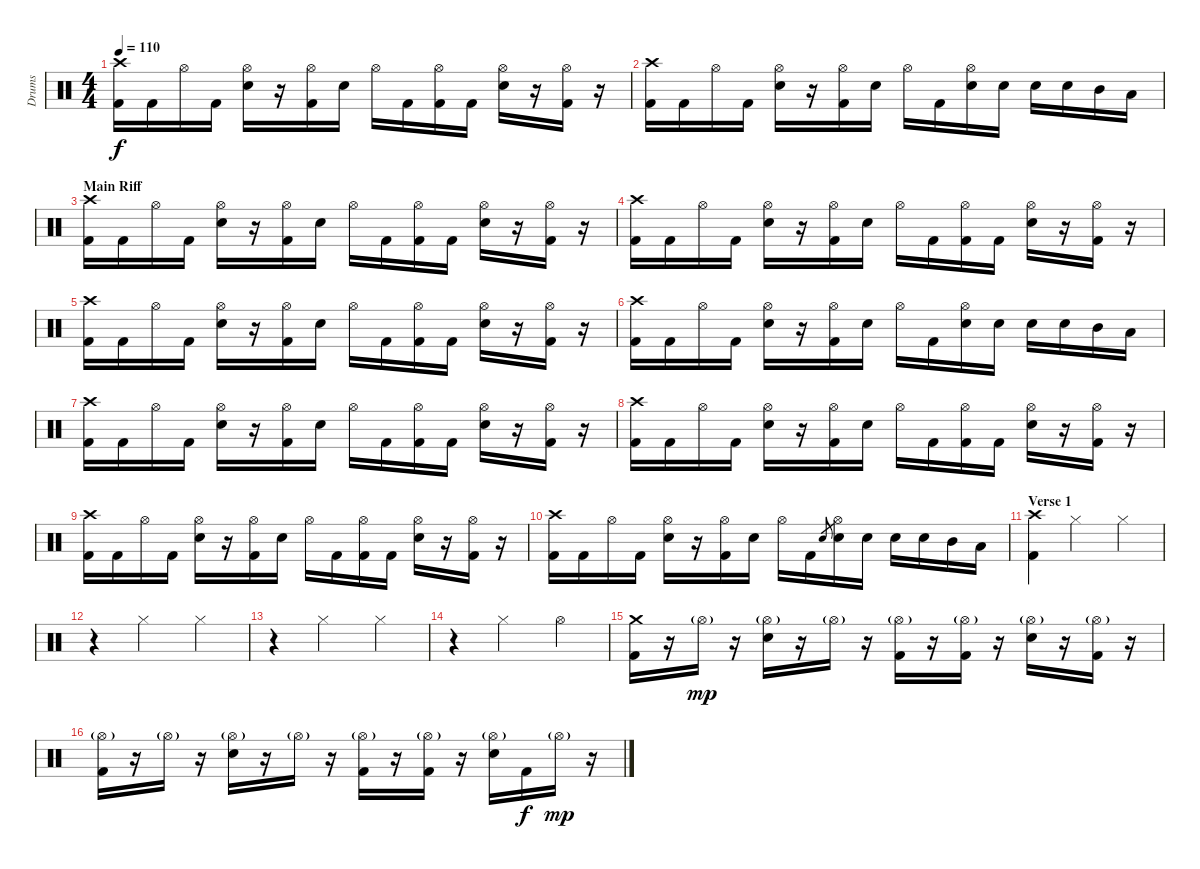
\track ("Drums" "Drums") {instrument percussion}
\staff {score}
\articulation defaults
\ts (4 4)
\tempo 110
\clef neutral
\ks c
("Crash high (hit)" "Kick (hit) 2").16{dy f} "Kick (hit) 2".16 "Hi-Hat (open)".16 "Kick (hit) 2".16 ("Hi-Hat (open)" "Electric Snare (hit)").16 r.16 ("Hi-Hat (open)" "Kick (hit) 2").16 "Electric Snare (hit)".16 "Hi-Hat (open)".16 "Kick (hit) 2".16 ("Hi-Hat (open)" "Kick (hit) 2").16 "Kick (hit) 2".16 ("Hi-Hat (open)" "Electric Snare (hit)").16 r.16 ("Hi-Hat (open)" "Kick (hit) 2").16 r.16 |
("Crash high (hit)" "Kick (hit) 2").16 "Kick (hit) 2".16 "Hi-Hat (open)".16 "Kick (hit) 2".16 ("Hi-Hat (open)" "Electric Snare (hit)").16 r.16 ("Hi-Hat (open)" "Kick (hit) 2").16 "Electric Snare (hit)".16 "Hi-Hat (open)".16 "Kick (hit) 2".16 ("Hi-Hat (open)" "Electric Snare (hit)").16 "Electric Snare (hit)".16 "Electric Snare (hit)".16 "Electric Snare (hit)".16 "Mid Tom (hit)".16 "Low Tom (hit)".16 |
\section ("" "Main Riff")
("Crash high (hit)" "Kick (hit) 2").16 "Kick (hit) 2".16 "Hi-Hat (open)".16 "Kick (hit) 2".16 ("Hi-Hat (open)" "Electric Snare (hit)").16 r.16 ("Hi-Hat (open)" "Kick (hit) 2").16 "Electric Snare (hit)".16 "Hi-Hat (open)".16 "Kick (hit) 2".16 ("Hi-Hat (open)" "Kick (hit) 2").16 "Kick (hit) 2".16 ("Hi-Hat (open)" "Electric Snare (hit)").16 r.16 ("Hi-Hat (open)" "Kick (hit) 2").16 r.16 |
("Crash high (hit)" "Kick (hit) 2").16 "Kick (hit) 2".16 "Hi-Hat (open)".16 "Kick (hit) 2".16 ("Hi-Hat (open)" "Electric Snare (hit)").16 r.16 ("Hi-Hat (open)" "Kick (hit) 2").16 "Electric Snare (hit)".16 "Hi-Hat (open)".16 "Kick (hit) 2".16 ("Hi-Hat (open)" "Kick (hit) 2").16 "Kick (hit) 2".16 ("Hi-Hat (open)" "Electric Snare (hit)").16 r.16 ("Hi-Hat (open)" "Kick (hit) 2").16 r.16 |
("Crash high (hit)" "Kick (hit) 2").16 "Kick (hit) 2".16 "Hi-Hat (open)".16 "Kick (hit) 2".16 ("Hi-Hat (open)" "Electric Snare (hit)").16 r.16 ("Hi-Hat (open)" "Kick (hit) 2").16 "Electric Snare (hit)".16 "Hi-Hat (open)".16 "Kick (hit) 2".16 ("Hi-Hat (open)" "Kick (hit) 2").16 "Kick (hit) 2".16 ("Hi-Hat (open)" "Electric Snare (hit)").16 r.16 ("Hi-Hat (open)" "Kick (hit) 2").16 r.16 |
("Crash high (hit)" "Kick (hit) 2").16 "Kick (hit) 2".16 "Hi-Hat (open)".16 "Kick (hit) 2".16 ("Hi-Hat (open)" "Electric Snare (hit)").16 r.16 ("Hi-Hat (open)" "Kick (hit) 2").16 "Electric Snare (hit)".16 "Hi-Hat (open)".16 "Kick (hit) 2".16 ("Hi-Hat (open)" "Electric Snare (hit)").16 "Electric Snare (hit)".16 "Electric Snare (hit)".16 "Electric Snare (hit)".16 "Mid Tom (hit)".16 "Low Tom (hit)".16 |
("Crash high (hit)" "Kick (hit) 2").16 "Kick (hit) 2".16 "Hi-Hat (open)".16 "Kick (hit) 2".16 ("Hi-Hat (open)" "Electric Snare (hit)").16 r.16 ("Hi-Hat (open)" "Kick (hit) 2").16 "Electric Snare (hit)".16 "Hi-Hat (open)".16 "Kick (hit) 2".16 ("Hi-Hat (open)" "Kick (hit) 2").16 "Kick (hit) 2".16 ("Hi-Hat (open)" "Electric Snare (hit)").16 r.16 ("Hi-Hat (open)" "Kick (hit) 2").16 r.16 |
("Crash high (hit)" "Kick (hit) 2").16 "Kick (hit) 2".16 "Hi-Hat (open)".16 "Kick (hit) 2".16 ("Hi-Hat (open)" "Electric Snare (hit)").16 r.16 ("Hi-Hat (open)" "Kick (hit) 2").16 "Electric Snare (hit)".16 "Hi-Hat (open)".16 "Kick (hit) 2".16 ("Hi-Hat (open)" "Kick (hit) 2").16 "Kick (hit) 2".16 ("Hi-Hat (open)" "Electric Snare (hit)").16 r.16 ("Hi-Hat (open)" "Kick (hit) 2").16 r.16 |
("Crash high (hit)" "Kick (hit) 2").16 "Kick (hit) 2".16 "Hi-Hat (open)".16 "Kick (hit) 2".16 ("Hi-Hat (open)" "Electric Snare (hit)").16 r.16 ("Hi-Hat (open)" "Kick (hit) 2").16 "Electric Snare (hit)".16 "Hi-Hat (open)".16 "Kick (hit) 2".16 ("Hi-Hat (open)" "Kick (hit) 2").16 "Kick (hit) 2".16 ("Hi-Hat (open)" "Electric Snare (hit)").16 r.16 ("Hi-Hat (open)" "Kick (hit) 2").16 r.16 |
("Crash high (hit)" "Kick (hit) 2").16 "Kick (hit) 2".16 "Hi-Hat (open)".16 "Kick (hit) 2".16 ("Hi-Hat (open)" "Electric Snare (hit)").16 r.16 ("Hi-Hat (open)" "Kick (hit) 2").16 "Electric Snare (hit)".16 "Hi-Hat (open)".16 "Kick (hit) 2".16 "Electric Snare (hit)".8{gr} ("Hi-Hat (open)" "Electric Snare (hit)").16 "Electric Snare (hit)".16 "Electric Snare (hit)".16 "Electric Snare (hit)".16 "Mid Tom (hit)".16 "Low Tom (hit)".16 |
\section ("" "Verse 1")
("Crash high (hit)" "Kick (hit) 2").4 "Hi-Hat (closed)".2 "Hi-Hat (closed)".4 |
r.4 "Hi-Hat (closed)".2 "Hi-Hat (closed)".4 |
r.4 "Hi-Hat (closed)".2 "Hi-Hat (closed)".4 |
r.4 "Hi-Hat (closed)".2 "Hi-Hat (open)".4 |
("Crash medium (hit)" "Kick (hit) 2").16 r.16 "Hi-Hat (open)"{g}.16{dy mp} r.16 ("Hi-Hat (open)"{g} "Electric Snare (hit)").16 r.16 "Hi-Hat (open)"{g}.16 r.16 ("Hi-Hat (open)"{g} "Kick (hit) 2").16 r.16 ("Hi-Hat (open)"{g} "Kick (hit) 2").16 r.16 ("Hi-Hat (open)"{g} "Electric Snare (hit)").16 r.16 ("Hi-Hat (open)"{g} "Kick (hit) 2").16 r.16 |
("Hi-Hat (open)"{g} "Kick (hit) 2").16 r.16 "Hi-Hat (open)"{g}.16 r.16 ("Hi-Hat (open)"{g} "Electric Snare (hit)").16 r.16 "Hi-Hat (open)"{g}.16 r.16 ("Hi-Hat (open)"{g} "Kick (hit) 2").16 r.16 ("Hi-Hat (open)"{g} "Kick (hit) 2").16 r.16 ("Hi-Hat (open)"{g} "Electric Snare (hit)").16 "Kick (hit) 2".16{dy f} "Hi-Hat (open)"{g}.16{dy mp} r.16
